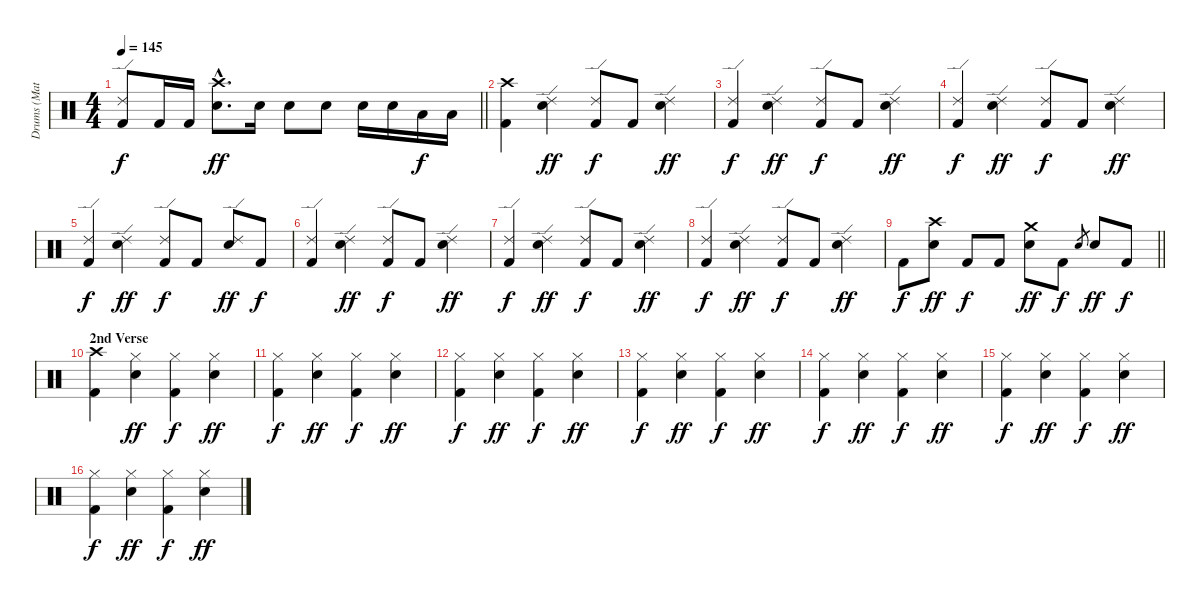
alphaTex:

\track ("Drums (Matt)" "Drums (Mat") {instrument percussion}
\staff {score}
\articulation defaults
\ts (4 4)
\tempo 145
\clef neutral
\barLineRight lightlight
\ks c
("Ride (edge) 2" "Kick (hit) 2").8{dy f} "Kick (hit) 2".16 "Kick (hit) 2".16 ("Crash high (hit)"{hac} "Snare (hit) 2"{hac}).8{d dy ff} "Snare (hit) 2".16 "Snare (hit) 2".8 "Snare (hit) 2".8 "Snare (hit) 2".16 "Snare (hit) 2".16 "Low Tom (hit)".16{dy f} "Low Tom (hit)".16 |
("Crash high (hit)" "Kick (hit) 2").4 ("Ride (edge) 2" "Snare (hit) 2").4{dy ff} ("Ride (edge) 2" "Kick (hit) 2").8{dy f} "Kick (hit) 2".8 ("Ride (edge) 2" "Snare (hit) 2").4{dy ff} |
("Ride (edge) 2" "Kick (hit) 2").4{dy f} ("Ride (edge) 2" "Snare (hit) 2").4{dy ff} ("Ride (edge) 2" "Kick (hit) 2").8{dy f} "Kick (hit) 2".8 ("Ride (edge) 2" "Snare (hit) 2").4{dy ff} |
("Ride (edge) 2" "Kick (hit) 2").4{dy f} ("Ride (edge) 2" "Snare (hit) 2").4{dy ff} ("Ride (edge) 2" "Kick (hit) 2").8{dy f} "Kick (hit) 2".8 ("Ride (edge) 2" "Snare (hit) 2").4{dy ff} |
("Ride (edge) 2" "Kick (hit) 2").4{dy f} ("Ride (edge) 2" "Snare (hit) 2").4{dy ff} ("Ride (edge) 2" "Kick (hit) 2").8{dy f} "Kick (hit) 2".8 ("Ride (edge) 2" "Snare (hit) 2").8{dy ff} "Kick (hit) 2".8{dy f} |
("Ride (edge) 2" "Kick (hit) 2").4 ("Ride (edge) 2" "Snare (hit) 2").4{dy ff} ("Ride (edge) 2" "Kick (hit) 2").8{dy f} "Kick (hit) 2".8 ("Ride (edge) 2" "Snare (hit) 2").4{dy ff} |
("Ride (edge) 2" "Kick (hit) 2").4{dy f} ("Ride (edge) 2" "Snare (hit) 2").4{dy ff} ("Ride (edge) 2" "Kick (hit) 2").8{dy f} "Kick (hit) 2".8 ("Ride (edge) 2" "Snare (hit) 2").4{dy ff} |
("Ride (edge) 2" "Kick (hit) 2").4{dy f} ("Ride (edge) 2" "Snare (hit) 2").4{dy ff} ("Ride (edge) 2" "Kick (hit) 2").8{dy f} "Kick (hit) 2".8 ("Ride (edge) 2" "Snare (hit) 2").4{dy ff} |
\barLineRight lightlight "Kick (hit) 2".8{dy f}
("Crash high (hit)" "Snare (hit) 2").8{dy ff} "Kick (hit) 2".8{dy f} "Kick (hit) 2".8 ("Crash medium (hit)" "Snare (hit) 2").8{dy ff} "Kick (hit) 2".8{dy f} "Snare (hit) 2".8{gr} "Snare (hit) 2".8{dy ff} "Kick (hit) 2".8{dy f} |
\section ("" "2nd Verse")
("Crash high (hit)" "Kick (hit) 2").4 ("Hi-Hat (closed)" "Snare (hit) 2").4{dy ff} ("Hi-Hat (closed)" "Kick (hit) 2").4{dy f} ("Hi-Hat (closed)" "Snare (hit) 2").4{dy ff} |
("Hi-Hat (closed)" "Kick (hit) 2").4{dy f} ("Hi-Hat (closed)" "Snare (hit) 2").4{dy ff} ("Hi-Hat (closed)" "Kick (hit) 2").4{dy f} ("Hi-Hat (closed)" "Snare (hit) 2").4{dy ff} |
("Hi-Hat (closed)" "Kick (hit) 2").4{dy f} ("Hi-Hat (closed)" "Snare (hit) 2").4{dy ff} ("Hi-Hat (closed)" "Kick (hit) 2").4{dy f} ("Hi-Hat (closed)" "Snare (hit) 2").4{dy ff} |
("Hi-Hat (closed)" "Kick (hit) 2").4{dy f} ("Hi-Hat (closed)" "Snare (hit) 2").4{dy ff} ("Hi-Hat (closed)" "Kick (hit) 2").4{dy f} ("Hi-Hat (closed)" "Snare (hit) 2").4{dy ff} |
("Hi-Hat (closed)" "Kick (hit) 2").4{dy f} ("Hi-Hat (closed)" "Snare (hit) 2").4{dy ff} ("Hi-Hat (closed)" "Kick (hit) 2").4{dy f} ("Hi-Hat (closed)" "Snare (hit) 2").4{dy ff} |
("Hi-Hat (closed)" "Kick (hit) 2").4{dy f} ("Hi-Hat (closed)" "Snare (hit) 2").4{dy ff} ("Hi-Hat (closed)" "Kick (hit) 2").4{dy f} ("Hi-Hat (closed)" "Snare (hit) 2").4{dy ff} |
("Hi-Hat (closed)" "Kick (hit) 2").4{dy f} ("Hi-Hat (closed)" "Snare (hit) 2").4{dy ff} ("Hi-Hat (closed)" "Kick (hit) 2").4{dy f} ("Hi-Hat (closed)" "Snare (hit) 2").4{dy ff}
